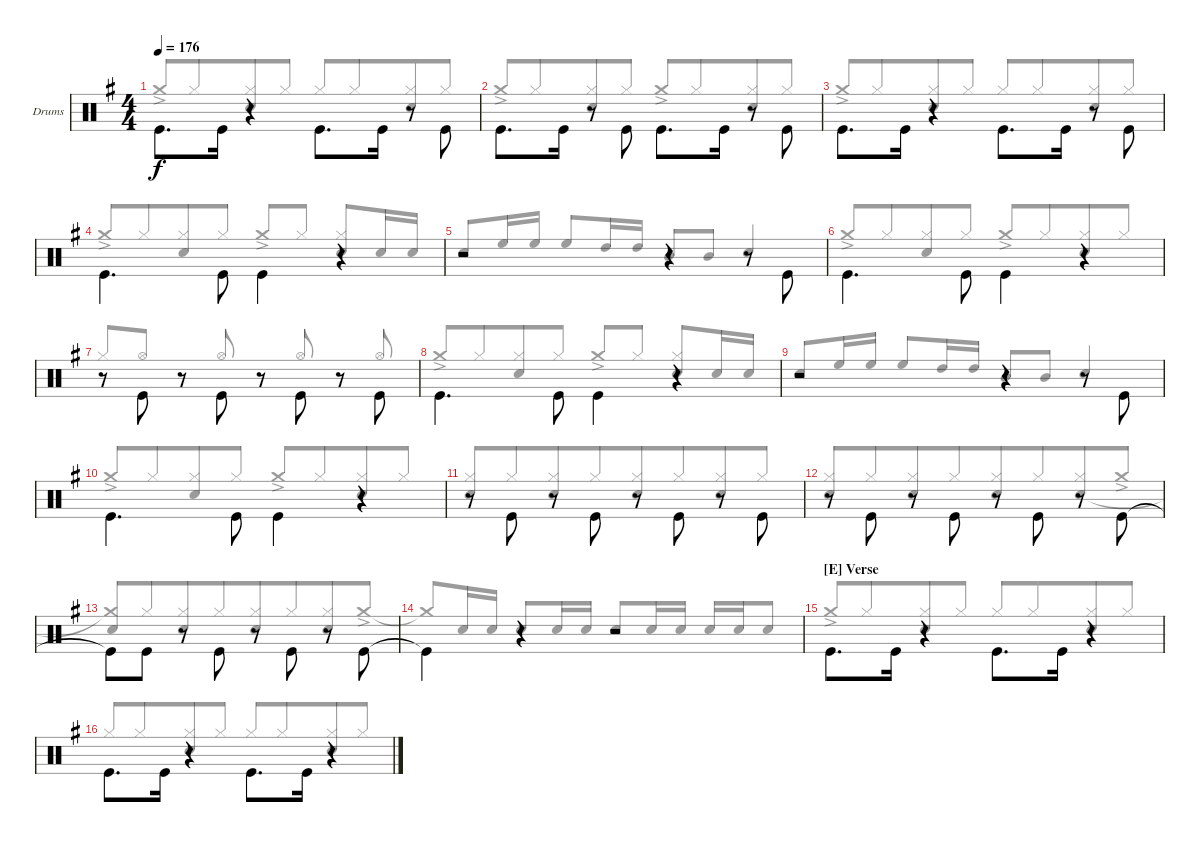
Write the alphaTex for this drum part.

\bracketExtendMode groupsimilarinstruments
\firstSystemTrackNameOrientation horizontal
\otherSystemsTrackNameOrientation horizontal
\track ("Drums" "Drums") {instrument percussion}
\staff {score}
\articulation defaults
\voice
\ts (4 4)
\tempo 176
\clef neutral
\scale
1.04288
\ks g "Kick (hit)".8{d dy f beam invert} "Kick (hit)".16
r.4 "Kick (hit)".8{d beam invert} "Kick (hit)".16 r.8 "Kick (hit)".8{beam invert} |
\scale
0.957125 "Kick (hit)".8{d beam invert} "Kick (hit)".16 r.8 "Kick (hit)".8{beam invert} "Kick (hit)".8{d beam invert} "Kick (hit)".16 r.8 "Kick (hit)".8{beam invert} |
\scale
1.04288 "Kick (hit)".8{d beam invert} "Kick (hit)".16 r.4 "Kick (hit)".8{d beam invert} "Kick (hit)".16 r.8 "Kick (hit)".8{beam invert} |
\scale
0.957125 "Kick (hit)".4{d beam invert} "Kick (hit)".8{beam invert} "Kick (hit)".4{beam invert} r.4 |
\scale
1.04288 r.2 r.4 r.8 "Kick (hit)".8{beam invert} |
\scale
0.957125 "Kick (hit)".4{d beam invert} "Kick (hit)".8{beam invert} "Kick (hit)".4{beam invert} r.4 |
\scale
1.04288 r.8 "Kick (hit)".8{beam invert} r.8 "Kick (hit)".8{beam invert} r.8 "Kick (hit)".8{beam invert} r.8 "Kick (hit)".8{beam invert} |
\scale
0.957125 "Kick (hit)".4{d beam invert} "Kick (hit)".8{beam invert} "Kick (hit)".4{beam invert} r.4 |
\scale
1.04288 r.2 r.4 r.8 "Kick (hit)".8{beam invert} |
\scale
0.957125 "Kick (hit)".4{d beam invert} "Kick (hit)".8{beam invert} "Kick (hit)".4{beam invert} r.4 |
\scale
1.04288 r.8 "Kick (hit)".8{beam invert beam split} r.8 "Kick (hit)".8{beam invert} r.8{beam split} "Kick (hit)".8{beam invert beam split} r.8{beam split} "Kick (hit)".8{beam invert beam split} |
\scale
0.957125 r.8 "Kick (hit)".8{beam invert beam split} r.8 "Kick (hit)".8{beam invert} r.8{beam split} "Kick (hit)".8{beam invert beam split} r.8{beam split} "Kick (hit)".8{beam invert beam split} |
\scale
1.04288 "Kick (hit)"{t}.8 "Kick (hit)".8{beam invert beam split} r.8 "Kick (hit)".8{beam invert} r.8{beam split} "Kick (hit)".8{beam invert beam split} r.8{beam split} "Kick (hit)".8{beam invert beam split} |
\scale
0.957125 "Kick (hit)"{t}.4{beam invert} r.4 r.2 |
\section ("E" "Verse")
\scale
1.04288 "Kick (hit)".8{d beam invert} "Kick (hit)".16 r.4{beam invert} "Kick (hit)".8{d beam invert} "Kick (hit)".16 r.4{beam invert} |
\scale
0.957125 "Kick (hit)".8{d beam invert} "Kick (hit)".16 r.4{beam invert} "Kick (hit)".8{d beam invert} "Kick (hit)".16 r.4{beam invert}
\voice
\clef neutral
\ottava regular
\simile none
\scale
1.04288
\ks g "Crash medium (hit)"{ac}.8{dy f beam invert} "Hi-Hat (closed)".8{beam merge}
("Hi-Hat (closed)" "Snare (hit) 2").8{beam merge} "Hi-Hat (closed)".8{beam split} "Hi-Hat (closed)".8{beam invert} "Hi-Hat (closed)".8{beam merge} ("Hi-Hat (closed)" "Snare (hit) 2").8{beam merge} "Hi-Hat (closed)".8{beam split} |
\scale
0.957125 "Crash medium (hit)"{ac}.8{beam invert} "Hi-Hat (closed)".8{beam merge} ("Hi-Hat (closed)" "Snare (hit) 2").8{beam merge} "Hi-Hat (closed)".8{beam split} "Crash medium (hit)"{ac}.8{beam invert} "Hi-Hat (closed)".8{beam merge} ("Hi-Hat (closed)" "Snare (hit) 2").8{beam merge} "Hi-Hat (closed)".8{beam split} |
\scale
1.04288 "Crash medium (hit)"{ac}.8{beam invert} "Hi-Hat (closed)".8{beam merge} ("Hi-Hat (closed)" "Snare (hit) 2").8{beam merge} "Hi-Hat (closed)".8{beam split} "Hi-Hat (closed)".8{beam invert} "Hi-Hat (closed)".8{beam merge} ("Hi-Hat (closed)" "Snare (hit) 2").8{beam merge} "Hi-Hat (closed)".8{beam split} |
\scale
0.957125 "Crash medium (hit)"{ac}.8{beam invert} "Hi-Hat (closed)".8{beam merge} ("Hi-Hat (closed)" "Snare (hit) 2").8{beam merge} "Hi-Hat (closed)".8{beam split} "Crash medium (hit)"{ac}.8{beam invert} "Hi-Hat (closed)".8{beam split} ("Hi-Hat (closed)" "Snare (hit) 2").8{beam invert beam merge} "Snare (hit) 2".16 "Snare (hit) 2".16 |
\scale
1.04288 "Snare (hit) 2".8{beam invert} "High Floor Tom (hit)".16 "High Floor Tom (hit)".16 "High Floor Tom (hit)".8{beam invert} "High Tom (hit)".16 "High Tom (hit)".16 "Mid Tom (hit)".8{beam invert} "Mid Tom (hit)".8 "Snare (hit) 2".4{beam invert} |
\scale
0.957125 "Crash medium (hit)"{ac}.8{beam invert} "Hi-Hat (closed)".8{beam merge} ("Hi-Hat (closed)" "Snare (hit) 2").8{beam merge} "Hi-Hat (closed)".8{beam split} "Crash medium (hit)"{ac}.8{beam invert} "Hi-Hat (closed)".8{beam merge} ("Hi-Hat (closed)" "Snare (hit) 2").8{beam merge} "Hi-Hat (closed)".8{beam split} |
\scale
1.04288 "Hi-Hat (closed)".8{beam invert} "Hi-Hat (open)".8{beam split} r.8{beam split} "Hi-Hat (open)".8{beam invert beam split} r.8{beam split} "Hi-Hat (open)".8{beam invert beam split} r.8{beam split} "Hi-Hat (open)".8{beam invert beam split} |
\scale
0.957125 "Crash medium (hit)"{ac}.8{beam invert} "Hi-Hat (closed)".8{beam merge} ("Hi-Hat (closed)" "Snare (hit) 2").8{beam merge} "Hi-Hat (closed)".8{beam split} "Crash medium (hit)"{ac}.8{beam invert} "Hi-Hat (closed)".8{beam split} ("Hi-Hat (closed)" "Snare (hit) 2").8{beam invert beam merge} "Snare (hit) 2".16 "Snare (hit) 2".16 |
\scale
1.04288 "Snare (hit) 2".8{beam invert} "High Floor Tom (hit)".16 "High Floor Tom (hit)".16 "High Floor Tom (hit)".8{beam invert} "High Tom (hit)".16 "High Tom (hit)".16 "Mid Tom (hit)".8{beam invert} "Mid Tom (hit)".8 "Snare (hit) 2".4{beam invert} |
\scale
0.957125 "Crash medium (hit)"{ac}.8{beam invert} "Hi-Hat (closed)".8{beam merge} ("Hi-Hat (closed)" "Snare (hit) 2").8{beam merge} "Hi-Hat (closed)".8{beam split} "Crash medium (hit)"{ac}.8{beam invert} "Hi-Hat (closed)".8{beam merge} ("Hi-Hat (closed)" "Snare (hit) 2").8{beam merge} "Hi-Hat (closed)".8{beam split} |
\scale
1.04288 ("Hi-Hat (closed)" "Snare (hit) 2").8{beam invert beam merge} "Hi-Hat (closed)".8{beam merge} ("Hi-Hat (closed)" "Snare (hit) 2").8{beam merge} "Hi-Hat (closed)".8{beam merge} ("Hi-Hat (closed)" "Snare (hit) 2").8{beam merge} "Hi-Hat (closed)".8{beam merge} ("Hi-Hat (closed)" "Snare (hit) 2").8{beam merge} "Hi-Hat (closed)".8{beam merge} |
\scale
0.957125 ("Hi-Hat (closed)" "Snare (hit) 2").8{beam invert beam merge} "Hi-Hat (closed)".8{beam merge} ("Hi-Hat (closed)" "Snare (hit) 2").8{beam merge} "Hi-Hat (closed)".8{beam merge} ("Hi-Hat (closed)" "Snare (hit) 2").8{beam merge} "Hi-Hat (closed)".8{beam merge} ("Hi-Hat (closed)" "Snare (hit) 2").8{beam merge} "Crash medium (hit)"{ac}.8{beam merge} |
\scale
1.04288 ("Snare (hit) 2" "Crash medium (hit)"{t}).8{beam invert beam merge} "Hi-Hat (closed)".8{beam merge} ("Hi-Hat (closed)" "Snare (hit) 2").8{beam merge} "Hi-Hat (closed)".8{beam merge} ("Hi-Hat (closed)" "Snare (hit) 2").8{beam merge} "Hi-Hat (closed)".8{beam merge} ("Hi-Hat (closed)" "Snare (hit) 2").8{beam merge} "Crash medium (hit)"{ac}.8{beam merge} |
\scale
0.957125 "Crash medium (hit)"{t}.8{beam invert} "Snare (hit) 2".16 "Snare (hit) 2".16 "Snare (hit) 2".8{beam invert} "Snare (hit) 2".16 "Snare (hit) 2".16 "Snare (hit) 2".8{beam invert} "Snare (hit) 2".16 "Snare (hit) 2".16 "Snare (hit) 2".16{beam invert} "Snare (hit) 2".16 "Snare (hit) 2".8 |
\scale
1.04288 "Crash medium (hit)"{ac}.8{beam invert beam merge} "Hi-Hat (closed)".8{beam merge} ("Hi-Hat (closed)" "Snare (hit) 2").8{beam merge} "Hi-Hat (closed)".8{beam split} "Hi-Hat (closed)".8{beam invert beam merge} "Hi-Hat (closed)".8{beam merge} ("Hi-Hat (closed)" "Snare (hit) 2").8{beam merge} "Hi-Hat (closed)".8{beam merge} |
\scale
0.957125 "Hi-Hat (closed)".8{beam invert beam merge} "Hi-Hat (closed)".8{beam merge} ("Hi-Hat (closed)" "Snare (hit) 2").8{beam merge} "Hi-Hat (closed)".8{beam split} "Hi-Hat (closed)".8{beam invert beam merge} "Hi-Hat (closed)".8{beam merge} ("Hi-Hat (closed)" "Snare (hit) 2").8{beam merge} "Hi-Hat (closed)".8{beam merge}
